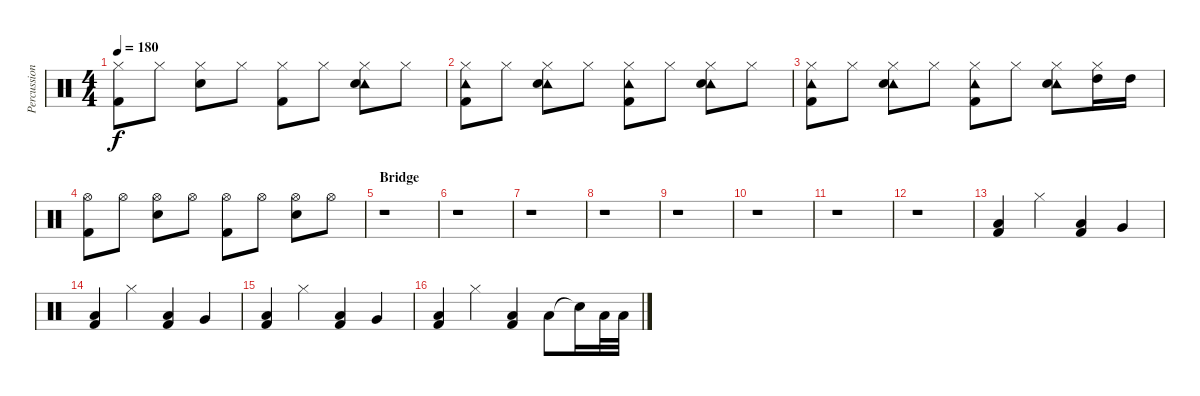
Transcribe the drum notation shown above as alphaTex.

\track ("Percussion" "Percussion") {instrument percussion}
\staff {score}
\articulation defaults
\ts (4 4)
\tempo 180
\clef neutral
\ks c
("Hi-Hat (closed)" "Kick (hit) 2").8{dy f} "Hi-Hat (closed)".8 ("Hi-Hat (closed)" "Electric Snare (hit)").8 "Hi-Hat (closed)".8 ("Hi-Hat (closed)" "Kick (hit) 2").8 "Hi-Hat (closed)".8 ("Tambourine (hit)" "Hi-Hat (closed)" "Electric Snare (hit)").8 "Hi-Hat (closed)".8 |
("Tambourine (hit)" "Hi-Hat (closed)" "Kick (hit) 2").8 "Hi-Hat (closed)".8 ("Tambourine (hit)" "Hi-Hat (closed)" "Electric Snare (hit)").8 "Hi-Hat (closed)".8 ("Tambourine (hit)" "Hi-Hat (closed)" "Kick (hit) 2").8 "Hi-Hat (closed)".8 ("Tambourine (hit)" "Hi-Hat (closed)" "Electric Snare (hit)").8 "Hi-Hat (closed)".8 |
("Tambourine (hit)" "Hi-Hat (closed)" "Kick (hit) 2").8 "Hi-Hat (closed)".8 ("Tambourine (hit)" "Hi-Hat (closed)" "Electric Snare (hit)").8 "Hi-Hat (closed)".8 ("Tambourine (hit)" "Hi-Hat (closed)" "Kick (hit) 2").8 "Hi-Hat (closed)".8 ("Tambourine (hit)" "Hi-Hat (closed)" "Electric Snare (hit)").8 ("Hi-Hat (closed)" "High Tom (hit)").16 "High Tom (hit)".16 |
("Hi-Hat (open)" "Kick (hit) 2").8 "Hi-Hat (open)".8 ("Hi-Hat (open)" "Electric Snare (hit)").8 "Hi-Hat (open)".8 ("Hi-Hat (open)" "Kick (hit) 2").8 "Hi-Hat (open)".8 ("Hi-Hat (open)" "Electric Snare (hit)").8 "Hi-Hat (open)".8 |
\section ("" "Bridge")
r.1 |
r.1 |
r.1 |
r.1 |
r.1 |
r.1 |
r.1 |
r.1 |
("Low Tom (hit)" "Kick (hit) 2").4 "Hi-Hat (closed)".4 ("Low Tom (hit)" "Kick (hit) 2").4 "Very Low Tom (hit)".4 |
("Low Tom (hit)" "Kick (hit) 2").4 "Hi-Hat (closed)".4 ("Low Tom (hit)" "Kick (hit) 2").4 "Very Low Tom (hit)".4 |
("Low Tom (hit)" "Kick (hit) 2").4 "Hi-Hat (closed)".4 ("Low Tom (hit)" "Kick (hit) 2").4 "Very Low Tom (hit)".4 |
("Low Tom (hit)" "Kick (hit) 2").4 "Hi-Hat (closed)".4 ("Low Tom (hit)" "Kick (hit) 2").4 "Low Tom (hit)".8 "Snare (hit)"{t}.16 "Low Tom (hit)".32 "Low Tom (hit)".32
